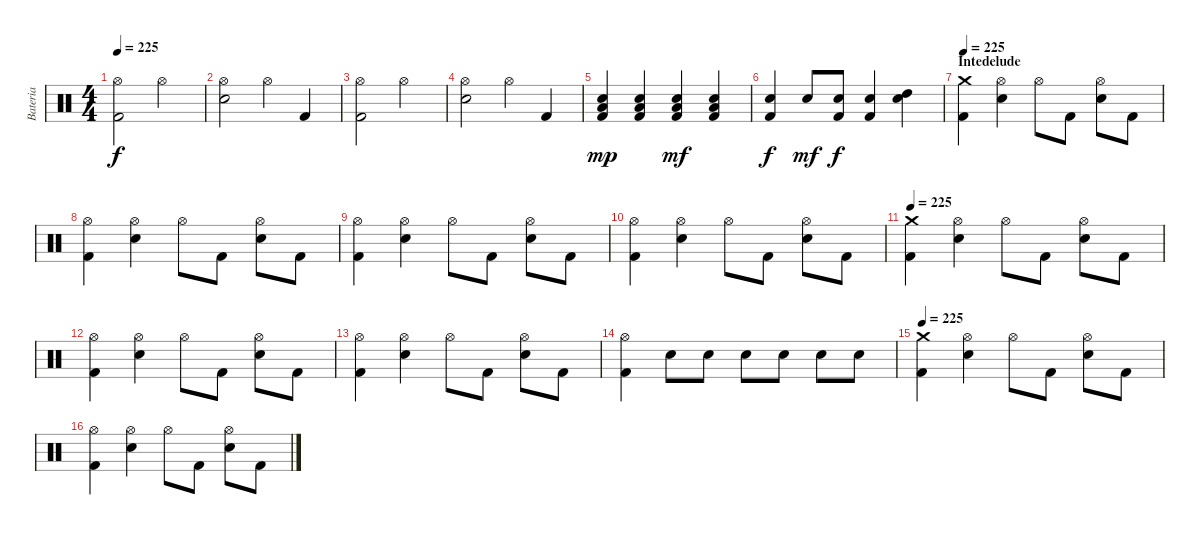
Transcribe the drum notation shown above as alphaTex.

\track ("Bateria" "Bateria") {instrument percussion}
\staff {score}
\articulation defaults
\ts (4 4)
\tempo 225
\clef neutral
\ks c
("Hi-Hat (open)" "Kick (hit) 2").2{dy f} "Hi-Hat (open)".2 |
("Hi-Hat (open)" "Snare (hit) 2").2 "Hi-Hat (open)".4 "Kick (hit) 2".4 |
("Hi-Hat (open)" "Kick (hit) 2").2 "Hi-Hat (open)".2 |
("Hi-Hat (open)" "Snare (hit) 2").2 "Hi-Hat (open)".4 "Kick (hit) 2".4 |
("Kick (hit) 2" "Snare (hit) 2" "Low Floor Tom (hit)").4{dy mp} ("Kick (hit) 2" "Snare (hit) 2" "Low Floor Tom (hit)").4 ("Kick (hit) 2" "Snare (hit) 2" "Low Floor Tom (hit)").4{dy mf} ("Kick (hit) 2" "Snare (hit) 2" "Low Floor Tom (hit)").4 |
("Kick (hit) 2" "Snare (hit) 2").4{dy f} "Snare (hit) 2".8{dy mf} ("Kick (hit) 2" "Snare (hit) 2").8{dy f} ("Kick (hit) 2" "Snare (hit) 2").4 ("Snare (hit) 2" "High Tom (hit)").4 |
\section ("" "Intedelude")
\tempo 225
("Crash medium (hit)" "Kick (hit) 2").4 ("Snare (hit) 2" "Hi-Hat (open)").4 "Hi-Hat (open)".8 "Kick (hit) 2".8 ("Hi-Hat (open)" "Snare (hit) 2").8 "Kick (hit) 2".8 |
("Hi-Hat (open)" "Kick (hit) 2").4 ("Snare (hit) 2" "Hi-Hat (open)").4 "Hi-Hat (open)".8 "Kick (hit) 2".8 ("Hi-Hat (open)" "Snare (hit) 2").8 "Kick (hit) 2".8 |
("Hi-Hat (open)" "Kick (hit) 2").4 ("Snare (hit) 2" "Hi-Hat (open)").4 "Hi-Hat (open)".8 "Kick (hit) 2".8 ("Hi-Hat (open)" "Snare (hit) 2").8 "Kick (hit) 2".8 |
("Hi-Hat (open)" "Kick (hit) 2").4 ("Snare (hit) 2" "Hi-Hat (open)").4 "Hi-Hat (open)".8 "Kick (hit) 2".8 ("Hi-Hat (open)" "Snare (hit) 2").8 "Kick (hit) 2".8 |
\tempo 225
("Crash medium (hit)" "Kick (hit) 2").4 ("Snare (hit) 2" "Hi-Hat (open)").4 "Hi-Hat (open)".8 "Kick (hit) 2".8 ("Hi-Hat (open)" "Snare (hit) 2").8 "Kick (hit) 2".8 |
("Hi-Hat (open)" "Kick (hit) 2").4 ("Snare (hit) 2" "Hi-Hat (open)").4 "Hi-Hat (open)".8 "Kick (hit) 2".8 ("Hi-Hat (open)" "Snare (hit) 2").8 "Kick (hit) 2".8 |
("Hi-Hat (open)" "Kick (hit) 2").4 ("Snare (hit) 2" "Hi-Hat (open)").4 "Hi-Hat (open)".8 "Kick (hit) 2".8 ("Hi-Hat (open)" "Snare (hit) 2").8 "Kick (hit) 2".8 |
("Kick (hit) 2" "Hi-Hat (open)").4 "Snare (hit) 2".8 "Snare (hit) 2".8 "Snare (hit) 2".8 "Snare (hit) 2".8 "Snare (hit) 2".8 "Snare (hit) 2".8 |
\tempo 225
("Crash medium (hit)" "Kick (hit) 2").4 ("Snare (hit) 2" "Hi-Hat (open)").4 "Hi-Hat (open)".8 "Kick (hit) 2".8 ("Hi-Hat (open)" "Snare (hit) 2").8 "Kick (hit) 2".8 |
("Hi-Hat (open)" "Kick (hit) 2").4 ("Snare (hit) 2" "Hi-Hat (open)").4 "Hi-Hat (open)".8 "Kick (hit) 2".8 ("Hi-Hat (open)" "Snare (hit) 2").8 "Kick (hit) 2".8
